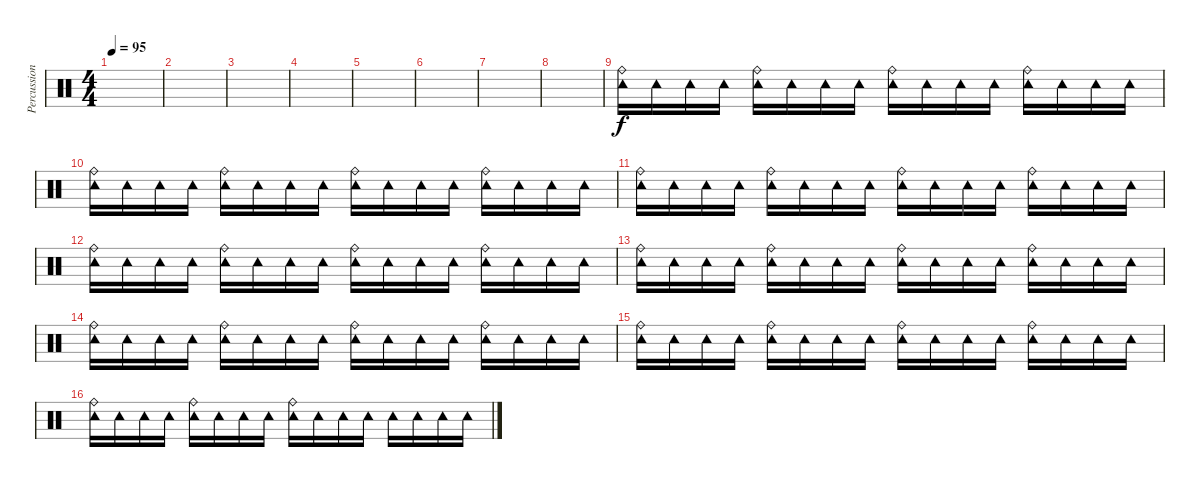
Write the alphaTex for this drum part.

\track ("Percussion (2)" "Percussion") {instrument percussion}
\staff {score}
\articulation defaults
\ts (4 4)
\tempo 95
\clef neutral
\ks c
|
|
|
|
|
|
|
|
("Tambourine (hit)" "Ride (bell)").16 "Tambourine (hit)".16 "Tambourine (hit)".16 "Tambourine (hit)".16 ("Tambourine (hit)" "Ride (bell)").16 "Tambourine (hit)".16 "Tambourine (hit)".16 "Tambourine (hit)".16 ("Tambourine (hit)" "Ride (bell)").16 "Tambourine (hit)".16 "Tambourine (hit)".16 "Tambourine (hit)".16 ("Tambourine (hit)" "Ride (bell)").16 "Tambourine (hit)".16 "Tambourine (hit)".16 "Tambourine (hit)".16 |
("Tambourine (hit)" "Ride (bell)").16 "Tambourine (hit)".16 "Tambourine (hit)".16 "Tambourine (hit)".16 ("Tambourine (hit)" "Ride (bell)").16 "Tambourine (hit)".16 "Tambourine (hit)".16 "Tambourine (hit)".16 ("Tambourine (hit)" "Ride (bell)").16 "Tambourine (hit)".16 "Tambourine (hit)".16 "Tambourine (hit)".16 ("Tambourine (hit)" "Ride (bell)").16 "Tambourine (hit)".16 "Tambourine (hit)".16 "Tambourine (hit)".16 |
("Tambourine (hit)" "Ride (bell)").16 "Tambourine (hit)".16 "Tambourine (hit)".16 "Tambourine (hit)".16 ("Tambourine (hit)" "Ride (bell)").16 "Tambourine (hit)".16 "Tambourine (hit)".16 "Tambourine (hit)".16 ("Tambourine (hit)" "Ride (bell)").16 "Tambourine (hit)".16 "Tambourine (hit)".16 "Tambourine (hit)".16 ("Tambourine (hit)" "Ride (bell)").16 "Tambourine (hit)".16 "Tambourine (hit)".16 "Tambourine (hit)".16 |
("Tambourine (hit)" "Ride (bell)").16 "Tambourine (hit)".16 "Tambourine (hit)".16 "Tambourine (hit)".16 ("Tambourine (hit)" "Ride (bell)").16 "Tambourine (hit)".16 "Tambourine (hit)".16 "Tambourine (hit)".16 ("Tambourine (hit)" "Ride (bell)").16 "Tambourine (hit)".16 "Tambourine (hit)".16 "Tambourine (hit)".16 ("Tambourine (hit)" "Ride (bell)").16 "Tambourine (hit)".16 "Tambourine (hit)".16 "Tambourine (hit)".16 |
("Tambourine (hit)" "Ride (bell)").16 "Tambourine (hit)".16 "Tambourine (hit)".16 "Tambourine (hit)".16 ("Tambourine (hit)" "Ride (bell)").16 "Tambourine (hit)".16 "Tambourine (hit)".16 "Tambourine (hit)".16 ("Tambourine (hit)" "Ride (bell)").16 "Tambourine (hit)".16 "Tambourine (hit)".16 "Tambourine (hit)".16 ("Tambourine (hit)" "Ride (bell)").16 "Tambourine (hit)".16 "Tambourine (hit)".16 "Tambourine (hit)".16 |
("Tambourine (hit)" "Ride (bell)").16 "Tambourine (hit)".16 "Tambourine (hit)".16 "Tambourine (hit)".16 ("Tambourine (hit)" "Ride (bell)").16 "Tambourine (hit)".16 "Tambourine (hit)".16 "Tambourine (hit)".16 ("Tambourine (hit)" "Ride (bell)").16 "Tambourine (hit)".16 "Tambourine (hit)".16 "Tambourine (hit)".16 ("Tambourine (hit)" "Ride (bell)").16 "Tambourine (hit)".16 "Tambourine (hit)".16 "Tambourine (hit)".16 |
("Tambourine (hit)" "Ride (bell)").16 "Tambourine (hit)".16 "Tambourine (hit)".16 "Tambourine (hit)".16 ("Tambourine (hit)" "Ride (bell)").16 "Tambourine (hit)".16 "Tambourine (hit)".16 "Tambourine (hit)".16 ("Tambourine (hit)" "Ride (bell)").16 "Tambourine (hit)".16 "Tambourine (hit)".16 "Tambourine (hit)".16 ("Tambourine (hit)" "Ride (bell)").16 "Tambourine (hit)".16 "Tambourine (hit)".16 "Tambourine (hit)".16 |
("Tambourine (hit)" "Ride (bell)").16 "Tambourine (hit)".16 "Tambourine (hit)".16 "Tambourine (hit)".16 ("Tambourine (hit)" "Ride (bell)").16 "Tambourine (hit)".16 "Tambourine (hit)".16 "Tambourine (hit)".16 ("Tambourine (hit)" "Ride (bell)").16 "Tambourine (hit)".16 "Tambourine (hit)".16 "Tambourine (hit)".16 "Tambourine (hit)".16 "Tambourine (hit)".16 "Tambourine (hit)".16 "Tambourine (hit)".16
